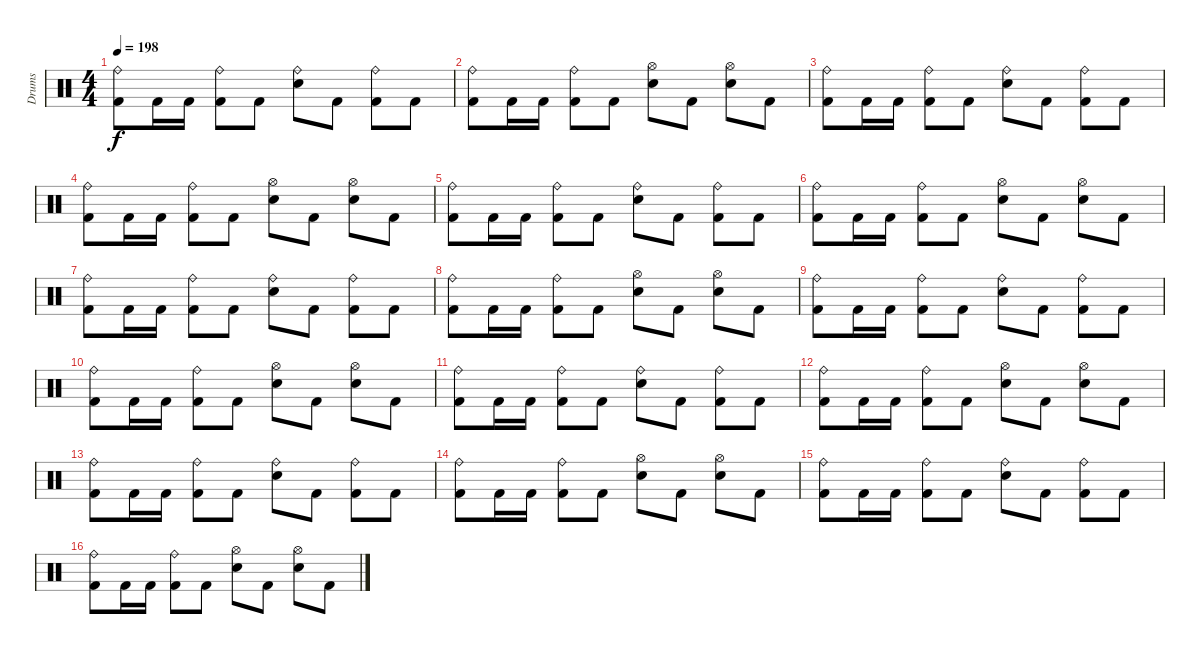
\track ("Drums" "Drums") {instrument percussion}
\staff {score}
\articulation defaults
\ts (4 4)
\tempo 198
\clef neutral
\ks c
("Ride (bell)" "Kick (hit) 2").8{dy f} "Kick (hit) 2".16 "Kick (hit) 2".16 ("Ride (bell)" "Kick (hit) 2").8 "Kick (hit) 2".8 ("Ride (bell)" "Snare (hit) 2").8 "Kick (hit) 2".8 ("Ride (bell)" "Kick (hit) 2").8 "Kick (hit) 2".8 |
("Ride (bell)" "Kick (hit) 2").8 "Kick (hit) 2".16 "Kick (hit) 2".16 ("Ride (bell)" "Kick (hit) 2").8 "Kick (hit) 2".8 ("Hi-Hat (open)" "Snare (hit) 2").8 "Kick (hit) 2".8 ("Hi-Hat (open)" "Snare (hit) 2").8 "Kick (hit) 2".8 |
("Ride (bell)" "Kick (hit) 2").8 "Kick (hit) 2".16 "Kick (hit) 2".16 ("Ride (bell)" "Kick (hit) 2").8 "Kick (hit) 2".8 ("Ride (bell)" "Snare (hit) 2").8 "Kick (hit) 2".8 ("Ride (bell)" "Kick (hit) 2").8 "Kick (hit) 2".8 |
("Ride (bell)" "Kick (hit) 2").8 "Kick (hit) 2".16 "Kick (hit) 2".16 ("Ride (bell)" "Kick (hit) 2").8 "Kick (hit) 2".8 ("Hi-Hat (open)" "Snare (hit) 2").8 "Kick (hit) 2".8 ("Hi-Hat (open)" "Snare (hit) 2").8 "Kick (hit) 2".8 |
("Ride (bell)" "Kick (hit) 2").8 "Kick (hit) 2".16 "Kick (hit) 2".16 ("Ride (bell)" "Kick (hit) 2").8 "Kick (hit) 2".8 ("Ride (bell)" "Snare (hit) 2").8 "Kick (hit) 2".8 ("Ride (bell)" "Kick (hit) 2").8 "Kick (hit) 2".8 |
("Ride (bell)" "Kick (hit) 2").8 "Kick (hit) 2".16 "Kick (hit) 2".16 ("Ride (bell)" "Kick (hit) 2").8 "Kick (hit) 2".8 ("Hi-Hat (open)" "Snare (hit) 2").8 "Kick (hit) 2".8 ("Hi-Hat (open)" "Snare (hit) 2").8 "Kick (hit) 2".8 |
("Ride (bell)" "Kick (hit) 2").8 "Kick (hit) 2".16 "Kick (hit) 2".16 ("Ride (bell)" "Kick (hit) 2").8 "Kick (hit) 2".8 ("Ride (bell)" "Snare (hit) 2").8 "Kick (hit) 2".8 ("Ride (bell)" "Kick (hit) 2").8 "Kick (hit) 2".8 |
("Ride (bell)" "Kick (hit) 2").8 "Kick (hit) 2".16 "Kick (hit) 2".16 ("Ride (bell)" "Kick (hit) 2").8 "Kick (hit) 2".8 ("Hi-Hat (open)" "Snare (hit) 2").8 "Kick (hit) 2".8 ("Hi-Hat (open)" "Snare (hit) 2").8 "Kick (hit) 2".8 |
("Ride (bell)" "Kick (hit) 2").8 "Kick (hit) 2".16 "Kick (hit) 2".16 ("Ride (bell)" "Kick (hit) 2").8 "Kick (hit) 2".8 ("Ride (bell)" "Snare (hit) 2").8 "Kick (hit) 2".8 ("Ride (bell)" "Kick (hit) 2").8 "Kick (hit) 2".8 |
("Ride (bell)" "Kick (hit) 2").8 "Kick (hit) 2".16 "Kick (hit) 2".16 ("Ride (bell)" "Kick (hit) 2").8 "Kick (hit) 2".8 ("Hi-Hat (open)" "Snare (hit) 2").8 "Kick (hit) 2".8 ("Hi-Hat (open)" "Snare (hit) 2").8 "Kick (hit) 2".8 |
("Ride (bell)" "Kick (hit) 2").8 "Kick (hit) 2".16 "Kick (hit) 2".16 ("Ride (bell)" "Kick (hit) 2").8 "Kick (hit) 2".8 ("Ride (bell)" "Snare (hit) 2").8 "Kick (hit) 2".8 ("Ride (bell)" "Kick (hit) 2").8 "Kick (hit) 2".8 |
("Ride (bell)" "Kick (hit) 2").8 "Kick (hit) 2".16 "Kick (hit) 2".16 ("Ride (bell)" "Kick (hit) 2").8 "Kick (hit) 2".8 ("Hi-Hat (open)" "Snare (hit) 2").8 "Kick (hit) 2".8 ("Hi-Hat (open)" "Snare (hit) 2").8 "Kick (hit) 2".8 |
("Ride (bell)" "Kick (hit) 2").8 "Kick (hit) 2".16 "Kick (hit) 2".16 ("Ride (bell)" "Kick (hit) 2").8 "Kick (hit) 2".8 ("Ride (bell)" "Snare (hit) 2").8 "Kick (hit) 2".8 ("Ride (bell)" "Kick (hit) 2").8 "Kick (hit) 2".8 |
("Ride (bell)" "Kick (hit) 2").8 "Kick (hit) 2".16 "Kick (hit) 2".16 ("Ride (bell)" "Kick (hit) 2").8 "Kick (hit) 2".8 ("Hi-Hat (open)" "Snare (hit) 2").8 "Kick (hit) 2".8 ("Hi-Hat (open)" "Snare (hit) 2").8 "Kick (hit) 2".8 |
("Ride (bell)" "Kick (hit) 2").8 "Kick (hit) 2".16 "Kick (hit) 2".16 ("Ride (bell)" "Kick (hit) 2").8 "Kick (hit) 2".8 ("Ride (bell)" "Snare (hit) 2").8 "Kick (hit) 2".8 ("Ride (bell)" "Kick (hit) 2").8 "Kick (hit) 2".8 |
("Ride (bell)" "Kick (hit) 2").8 "Kick (hit) 2".16 "Kick (hit) 2".16 ("Ride (bell)" "Kick (hit) 2").8 "Kick (hit) 2".8 ("Hi-Hat (open)" "Snare (hit) 2").8 "Kick (hit) 2".8 ("Hi-Hat (open)" "Snare (hit) 2").8 "Kick (hit) 2".8
